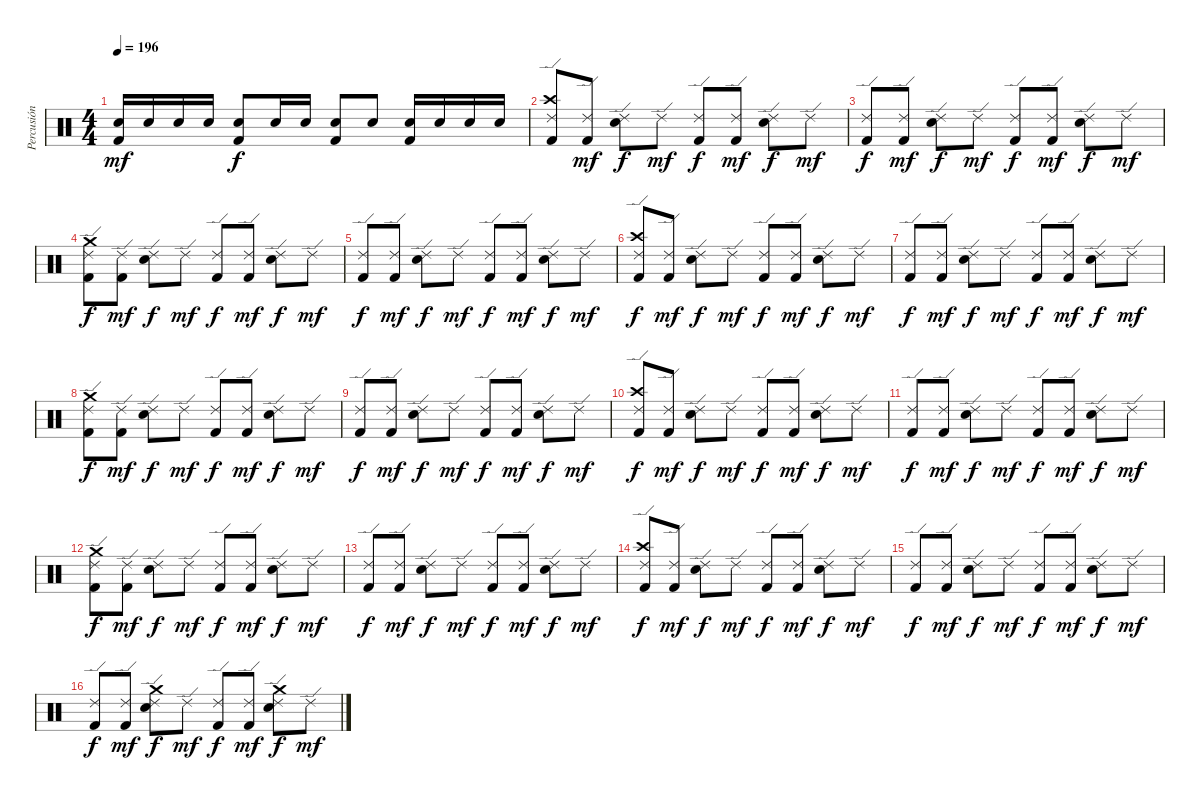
\track ("Percusión" "Percusión") {instrument percussion}
\staff {score}
\articulation defaults
\ts (4 4)
\tempo 196
\clef neutral
\ks c
("Electric Snare (hit)" "Kick (hit) 2").16{dy mf} "Electric Snare (hit)".16 "Electric Snare (hit)".16 "Electric Snare (hit)".16 ("Electric Snare (hit)" "Kick (hit) 2").8{dy f} "Electric Snare (hit)".16 "Electric Snare (hit)".16 ("Electric Snare (hit)" "Kick (hit) 2").8 "Electric Snare (hit)".8 ("Electric Snare (hit)" "Kick (hit) 2").16 "Electric Snare (hit)".16 "Electric Snare (hit)".16 "Electric Snare (hit)".16 |
("Crash high (hit)" "Ride (edge) 2" "Kick (hit) 2").8 ("Ride (edge) 2" "Kick (hit) 2").8{dy mf} ("Ride (edge) 2" "Electric Snare (hit)").8{dy f} "Ride (edge) 2".8{dy mf} ("Ride (edge) 2" "Kick (hit) 2").8{dy f} ("Ride (edge) 2" "Kick (hit) 2").8{dy mf} ("Ride (edge) 2" "Electric Snare (hit)").8{dy f} "Ride (edge) 2".8{dy mf} |
("Ride (edge) 2" "Kick (hit) 2").8{dy f} ("Ride (edge) 2" "Kick (hit) 2").8{dy mf} ("Ride (edge) 2" "Electric Snare (hit)").8{dy f} "Ride (edge) 2".8{dy mf} ("Ride (edge) 2" "Kick (hit) 2").8{dy f} ("Ride (edge) 2" "Kick (hit) 2").8{dy mf} ("Ride (edge) 2" "Electric Snare (hit)").8{dy f} "Ride (edge) 2".8{dy mf} |
("Crash medium (hit)" "Ride (edge) 2" "Kick (hit) 2").8{dy f} ("Ride (edge) 2" "Kick (hit) 2").8{dy mf} ("Ride (edge) 2" "Electric Snare (hit)").8{dy f} "Ride (edge) 2".8{dy mf} ("Ride (edge) 2" "Kick (hit) 2").8{dy f} ("Ride (edge) 2" "Kick (hit) 2").8{dy mf} ("Ride (edge) 2" "Electric Snare (hit)").8{dy f} "Ride (edge) 2".8{dy mf} |
("Ride (edge) 2" "Kick (hit) 2").8{dy f} ("Ride (edge) 2" "Kick (hit) 2").8{dy mf} ("Ride (edge) 2" "Electric Snare (hit)").8{dy f} "Ride (edge) 2".8{dy mf} ("Ride (edge) 2" "Kick (hit) 2").8{dy f} ("Ride (edge) 2" "Kick (hit) 2").8{dy mf} ("Ride (edge) 2" "Electric Snare (hit)").8{dy f} "Ride (edge) 2".8{dy mf} |
("Crash high (hit)" "Ride (edge) 2" "Kick (hit) 2").8{dy f} ("Ride (edge) 2" "Kick (hit) 2").8{dy mf} ("Ride (edge) 2" "Electric Snare (hit)").8{dy f} "Ride (edge) 2".8{dy mf} ("Ride (edge) 2" "Kick (hit) 2").8{dy f} ("Ride (edge) 2" "Kick (hit) 2").8{dy mf} ("Ride (edge) 2" "Electric Snare (hit)").8{dy f} "Ride (edge) 2".8{dy mf} |
("Ride (edge) 2" "Kick (hit) 2").8{dy f} ("Ride (edge) 2" "Kick (hit) 2").8{dy mf} ("Ride (edge) 2" "Electric Snare (hit)").8{dy f} "Ride (edge) 2".8{dy mf} ("Ride (edge) 2" "Kick (hit) 2").8{dy f} ("Ride (edge) 2" "Kick (hit) 2").8{dy mf} ("Ride (edge) 2" "Electric Snare (hit)").8{dy f} "Ride (edge) 2".8{dy mf} |
("Crash medium (hit)" "Ride (edge) 2" "Kick (hit) 2").8{dy f} ("Ride (edge) 2" "Kick (hit) 2").8{dy mf} ("Ride (edge) 2" "Electric Snare (hit)").8{dy f} "Ride (edge) 2".8{dy mf} ("Ride (edge) 2" "Kick (hit) 2").8{dy f} ("Ride (edge) 2" "Kick (hit) 2").8{dy mf} ("Ride (edge) 2" "Electric Snare (hit)").8{dy f} "Ride (edge) 2".8{dy mf} |
("Ride (edge) 2" "Kick (hit) 2").8{dy f} ("Ride (edge) 2" "Kick (hit) 2").8{dy mf} ("Ride (edge) 2" "Electric Snare (hit)").8{dy f} "Ride (edge) 2".8{dy mf} ("Ride (edge) 2" "Kick (hit) 2").8{dy f} ("Ride (edge) 2" "Kick (hit) 2").8{dy mf} ("Ride (edge) 2" "Electric Snare (hit)").8{dy f} "Ride (edge) 2".8{dy mf} |
("Crash high (hit)" "Ride (edge) 2" "Kick (hit) 2").8{dy f} ("Ride (edge) 2" "Kick (hit) 2").8{dy mf} ("Ride (edge) 2" "Electric Snare (hit)").8{dy f} "Ride (edge) 2".8{dy mf} ("Ride (edge) 2" "Kick (hit) 2").8{dy f} ("Ride (edge) 2" "Kick (hit) 2").8{dy mf} ("Ride (edge) 2" "Electric Snare (hit)").8{dy f} "Ride (edge) 2".8{dy mf} |
("Ride (edge) 2" "Kick (hit) 2").8{dy f} ("Ride (edge) 2" "Kick (hit) 2").8{dy mf} ("Ride (edge) 2" "Electric Snare (hit)").8{dy f} "Ride (edge) 2".8{dy mf} ("Ride (edge) 2" "Kick (hit) 2").8{dy f} ("Ride (edge) 2" "Kick (hit) 2").8{dy mf} ("Ride (edge) 2" "Electric Snare (hit)").8{dy f} "Ride (edge) 2".8{dy mf} |
("Crash medium (hit)" "Ride (edge) 2" "Kick (hit) 2").8{dy f} ("Ride (edge) 2" "Kick (hit) 2").8{dy mf} ("Ride (edge) 2" "Electric Snare (hit)").8{dy f} "Ride (edge) 2".8{dy mf} ("Ride (edge) 2" "Kick (hit) 2").8{dy f} ("Ride (edge) 2" "Kick (hit) 2").8{dy mf} ("Ride (edge) 2" "Electric Snare (hit)").8{dy f} "Ride (edge) 2".8{dy mf} |
("Ride (edge) 2" "Kick (hit) 2").8{dy f} ("Ride (edge) 2" "Kick (hit) 2").8{dy mf} ("Ride (edge) 2" "Electric Snare (hit)").8{dy f} "Ride (edge) 2".8{dy mf} ("Ride (edge) 2" "Kick (hit) 2").8{dy f} ("Ride (edge) 2" "Kick (hit) 2").8{dy mf} ("Ride (edge) 2" "Electric Snare (hit)").8{dy f} "Ride (edge) 2".8{dy mf} |
("Crash high (hit)" "Ride (edge) 2" "Kick (hit) 2").8{dy f} ("Ride (edge) 2" "Kick (hit) 2").8{dy mf} ("Ride (edge) 2" "Electric Snare (hit)").8{dy f} "Ride (edge) 2".8{dy mf} ("Ride (edge) 2" "Kick (hit) 2").8{dy f} ("Ride (edge) 2" "Kick (hit) 2").8{dy mf} ("Ride (edge) 2" "Electric Snare (hit)").8{dy f} "Ride (edge) 2".8{dy mf} |
("Ride (edge) 2" "Kick (hit) 2").8{dy f} ("Ride (edge) 2" "Kick (hit) 2").8{dy mf} ("Ride (edge) 2" "Electric Snare (hit)").8{dy f} "Ride (edge) 2".8{dy mf} ("Ride (edge) 2" "Kick (hit) 2").8{dy f} ("Ride (edge) 2" "Kick (hit) 2").8{dy mf} ("Ride (edge) 2" "Electric Snare (hit)").8{dy f} "Ride (edge) 2".8{dy mf} |
("Ride (edge) 2" "Kick (hit) 2").8{dy f} ("Ride (edge) 2" "Kick (hit) 2").8{dy mf} ("Crash medium (hit)" "Ride (edge) 2" "Electric Snare (hit)").8{dy f} "Ride (edge) 2".8{dy mf} ("Ride (edge) 2" "Kick (hit) 2").8{dy f} ("Ride (edge) 2" "Kick (hit) 2").8{dy mf} ("Crash medium (hit)" "Ride (edge) 2" "Electric Snare (hit)").8{dy f} "Ride (edge) 2".8{dy mf}
